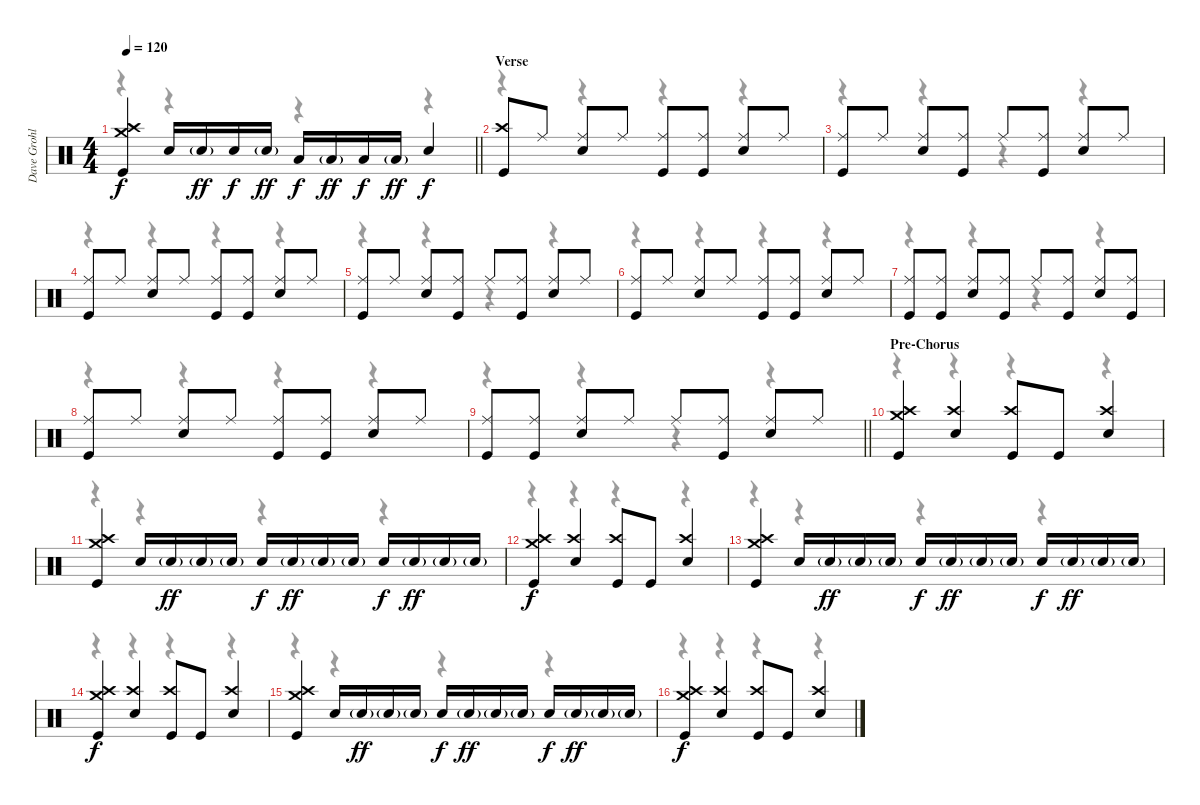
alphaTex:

\track ("Dave Grohl" "Dave Grohl") {instrument percussion}
\staff {score}
\articulation defaults
\voice
\ts (4 4)
\tempo 120
\clef neutral
\barLineRight lightlight
\ks c
("Crash medium (hit)" "Crash high (hit)" "Kick (hit)").4{dy f} "Snare (hit) 2".16 "Snare (hit) 2"{g}.16{dy ff} "Snare (hit) 2".16{dy f} "Snare (hit) 2"{g}.16{dy ff} "Low Tom (hit)".16{dy f} "Low Tom (hit)"{g}.16{dy ff} "Low Tom (hit)".16{dy f} "Low Tom (hit)"{g}.16{dy ff} "Snare (hit) 2".4{dy f} |
\section ("" "Verse")
("Crash high (hit)" "Kick (hit)").8 "Ride (middle)".8 ("Ride (middle)" "Snare (hit) 2").8 "Ride (middle)".8 ("Ride (middle)" "Kick (hit)").8 ("Ride (middle)" "Kick (hit)").8 ("Ride (middle)" "Snare (hit) 2").8 "Ride (middle)".8 |
("Ride (middle)" "Kick (hit)").8 "Ride (middle)".8 ("Ride (middle)" "Snare (hit) 2").8 ("Ride (middle)" "Kick (hit)").8 "Ride (middle)".8 ("Ride (middle)" "Kick (hit)").8 ("Ride (middle)" "Snare (hit) 2").8 "Ride (middle)".8 |
("Ride (middle)" "Kick (hit)").8 "Ride (middle)".8 ("Ride (middle)" "Snare (hit) 2").8 "Ride (middle)".8 ("Ride (middle)" "Kick (hit)").8 ("Ride (middle)" "Kick (hit)").8 ("Ride (middle)" "Snare (hit) 2").8 "Ride (middle)".8 |
("Ride (middle)" "Kick (hit)").8 "Ride (middle)".8 ("Ride (middle)" "Snare (hit) 2").8 ("Ride (middle)" "Kick (hit)").8 "Ride (middle)".8 ("Ride (middle)" "Kick (hit)").8 ("Ride (middle)" "Snare (hit) 2").8 "Ride (middle)".8 |
("Ride (middle)" "Kick (hit)").8 "Ride (middle)".8 ("Ride (middle)" "Snare (hit) 2").8 "Ride (middle)".8 ("Ride (middle)" "Kick (hit)").8 ("Ride (middle)" "Kick (hit)").8 ("Ride (middle)" "Snare (hit) 2").8 "Ride (middle)".8 |
("Ride (middle)" "Kick (hit)").8 ("Ride (middle)" "Kick (hit)").8 ("Ride (middle)" "Snare (hit) 2").8 ("Ride (middle)" "Kick (hit)").8 "Ride (middle)".8 ("Ride (middle)" "Kick (hit)").8 ("Ride (middle)" "Snare (hit) 2").8 ("Ride (middle)" "Kick (hit)").8 |
("Ride (middle)" "Kick (hit)").8 "Ride (middle)".8 ("Ride (middle)" "Snare (hit) 2").8 "Ride (middle)".8 ("Ride (middle)" "Kick (hit)").8 ("Ride (middle)" "Kick (hit)").8 ("Ride (middle)" "Snare (hit) 2").8 "Ride (middle)".8 |
\barLineRight lightlight
("Ride (middle)" "Kick (hit)").8 ("Ride (middle)" "Kick (hit)").8 ("Ride (middle)" "Snare (hit) 2").8 "Ride (middle)".8 "Ride (middle)".8 ("Ride (middle)" "Kick (hit)").8 ("Ride (middle)" "Snare (hit) 2").8 "Ride (middle)".8 |
\section ("" "Pre-Chorus")
("Crash medium (hit)" "Crash high (hit)" "Kick (hit)").4 ("Crash high (hit)" "Snare (hit) 2").4 ("Crash high (hit)" "Kick (hit)").8 "Kick (hit)".8 ("Crash high (hit)" "Snare (hit) 2").4 |
("Crash medium (hit)" "Crash high (hit)" "Kick (hit)").4 "Snare (hit) 2".16 "Snare (hit) 2"{g}.16{dy ff} "Snare (hit) 2"{g}.16 "Snare (hit) 2"{g}.16 "Snare (hit) 2".16{dy f} "Snare (hit) 2"{g}.16{dy ff} "Snare (hit) 2"{g}.16 "Snare (hit) 2"{g}.16 "Snare (hit) 2".16{dy f} "Snare (hit) 2"{g}.16{dy ff} "Snare (hit) 2"{g}.16 "Snare (hit) 2"{g}.16 |
("Crash medium (hit)" "Crash high (hit)" "Kick (hit)").4{dy f} ("Crash high (hit)" "Snare (hit) 2").4 ("Crash high (hit)" "Kick (hit)").8 "Kick (hit)".8 ("Crash high (hit)" "Snare (hit) 2").4 |
("Crash medium (hit)" "Crash high (hit)" "Kick (hit)").4 "Snare (hit) 2".16 "Snare (hit) 2"{g}.16{dy ff} "Snare (hit) 2"{g}.16 "Snare (hit) 2"{g}.16 "Snare (hit) 2".16{dy f} "Snare (hit) 2"{g}.16{dy ff} "Snare (hit) 2"{g}.16 "Snare (hit) 2"{g}.16 "Snare (hit) 2".16{dy f} "Snare (hit) 2"{g}.16{dy ff} "Snare (hit) 2"{g}.16 "Snare (hit) 2"{g}.16 |
("Crash medium (hit)" "Crash high (hit)" "Kick (hit)").4{dy f} ("Crash high (hit)" "Snare (hit) 2").4 ("Crash high (hit)" "Kick (hit)").8 "Kick (hit)".8 ("Crash high (hit)" "Snare (hit) 2").4 |
("Crash medium (hit)" "Crash high (hit)" "Kick (hit)").4 "Snare (hit) 2".16 "Snare (hit) 2"{g}.16{dy ff} "Snare (hit) 2"{g}.16 "Snare (hit) 2"{g}.16 "Snare (hit) 2".16{dy f} "Snare (hit) 2"{g}.16{dy ff} "Snare (hit) 2"{g}.16 "Snare (hit) 2"{g}.16 "Snare (hit) 2".16{dy f} "Snare (hit) 2"{g}.16{dy ff} "Snare (hit) 2"{g}.16 "Snare (hit) 2"{g}.16 |
("Crash medium (hit)" "Crash high (hit)" "Kick (hit)").4{dy f} ("Crash high (hit)" "Snare (hit) 2").4 ("Crash high (hit)" "Kick (hit)").8 "Kick (hit)".8 ("Crash high (hit)" "Snare (hit) 2").4
\voice
\clef neutral
\ottava regular
\simile none
\barLineRight lightlight
\ks c
r.4{dy f} r.4 r.4 r.4 |
r.4 r.4 r.4 r.4 |
r.4 r.4 r.4 r.4 |
r.4 r.4 r.4 r.4 |
r.4 r.4 r.4 r.4 |
r.4 r.4 r.4 r.4 |
r.4 r.4 r.4 r.4 |
r.4 r.4 r.4 r.4 |
\barLineRight lightlight
r.4 r.4 r.4 r.4 |
r.4 r.4 r.4 r.4 |
r.4 r.4 r.4 r.4 |
r.4 r.4 r.4 r.4 |
r.4 r.4 r.4 r.4 |
r.4 r.4 r.4 r.4 |
r.4 r.4 r.4 r.4 |
r.4 r.4 r.4 r.4
